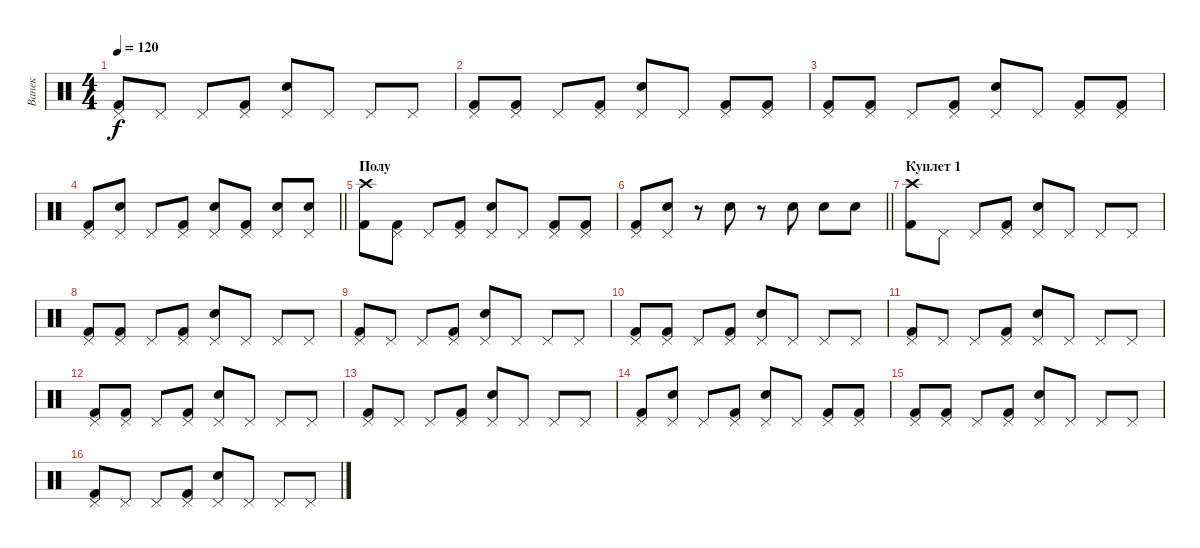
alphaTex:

\track ("Ванек" "Ванек") {instrument percussion}
\staff {score}
\articulation defaults
\ts (4 4)
\tempo 120
\clef neutral
\ks c
("Kick (hit) 2" "Pedal Hi-Hat (hit)").8{dy f} "Pedal Hi-Hat (hit)".8 "Pedal Hi-Hat (hit)".8 ("Kick (hit) 2" "Pedal Hi-Hat (hit)").8 ("Electric Snare (hit)" "Pedal Hi-Hat (hit)").8 "Pedal Hi-Hat (hit)".8 "Pedal Hi-Hat (hit)".8 "Pedal Hi-Hat (hit)".8 |
("Kick (hit) 2" "Pedal Hi-Hat (hit)").8 ("Kick (hit) 2" "Pedal Hi-Hat (hit)").8 "Pedal Hi-Hat (hit)".8 ("Kick (hit) 2" "Pedal Hi-Hat (hit)").8 ("Electric Snare (hit)" "Pedal Hi-Hat (hit)").8 "Pedal Hi-Hat (hit)".8 ("Kick (hit) 2" "Pedal Hi-Hat (hit)").8 ("Kick (hit) 2" "Pedal Hi-Hat (hit)").8 |
("Kick (hit) 2" "Pedal Hi-Hat (hit)").8 ("Kick (hit) 2" "Pedal Hi-Hat (hit)").8 "Pedal Hi-Hat (hit)".8 ("Kick (hit) 2" "Pedal Hi-Hat (hit)").8 ("Electric Snare (hit)" "Pedal Hi-Hat (hit)").8 "Pedal Hi-Hat (hit)".8 ("Kick (hit) 2" "Pedal Hi-Hat (hit)").8 ("Kick (hit) 2" "Pedal Hi-Hat (hit)").8 |
\barLineRight lightlight
("Kick (hit) 2" "Pedal Hi-Hat (hit)").8 ("Electric Snare (hit)" "Pedal Hi-Hat (hit)").8 "Pedal Hi-Hat (hit)".8 ("Kick (hit) 2" "Pedal Hi-Hat (hit)").8 ("Electric Snare (hit)" "Pedal Hi-Hat (hit)").8 ("Kick (hit) 2" "Pedal Hi-Hat (hit)").8 ("Electric Snare (hit)" "Pedal Hi-Hat (hit)").8 ("Electric Snare (hit)" "Pedal Hi-Hat (hit)").8 |
\section ("" "Полу")
("Kick (hit) 2" "Crash high (hit)").8 ("Kick (hit) 2" "Pedal Hi-Hat (hit)").8 "Pedal Hi-Hat (hit)".8 ("Kick (hit) 2" "Pedal Hi-Hat (hit)").8 ("Electric Snare (hit)" "Pedal Hi-Hat (hit)").8 "Pedal Hi-Hat (hit)".8 ("Kick (hit) 2" "Pedal Hi-Hat (hit)").8 ("Kick (hit) 2" "Pedal Hi-Hat (hit)").8 |
\barLineRight lightlight
("Kick (hit) 2" "Pedal Hi-Hat (hit)").8 ("Electric Snare (hit)" "Pedal Hi-Hat (hit)").8 r.8 "Electric Snare (hit)".8 r.8 "Electric Snare (hit)".8 "Electric Snare (hit)".8 "Electric Snare (hit)".8 |
\section ("" "Куплет 1")
("Kick (hit) 2" "Crash high (hit)").8 "Pedal Hi-Hat (hit)".8 "Pedal Hi-Hat (hit)".8 ("Kick (hit) 2" "Pedal Hi-Hat (hit)").8 ("Electric Snare (hit)" "Pedal Hi-Hat (hit)").8 "Pedal Hi-Hat (hit)".8 "Pedal Hi-Hat (hit)".8 "Pedal Hi-Hat (hit)".8 |
("Kick (hit) 2" "Pedal Hi-Hat (hit)").8 ("Kick (hit) 2" "Pedal Hi-Hat (hit)").8 "Pedal Hi-Hat (hit)".8 ("Kick (hit) 2" "Pedal Hi-Hat (hit)").8 ("Electric Snare (hit)" "Pedal Hi-Hat (hit)").8 "Pedal Hi-Hat (hit)".8 "Pedal Hi-Hat (hit)".8 "Pedal Hi-Hat (hit)".8 |
("Kick (hit) 2" "Pedal Hi-Hat (hit)").8 "Pedal Hi-Hat (hit)".8 "Pedal Hi-Hat (hit)".8 ("Kick (hit) 2" "Pedal Hi-Hat (hit)").8 ("Electric Snare (hit)" "Pedal Hi-Hat (hit)").8 "Pedal Hi-Hat (hit)".8 "Pedal Hi-Hat (hit)".8 "Pedal Hi-Hat (hit)".8 |
("Kick (hit) 2" "Pedal Hi-Hat (hit)").8 ("Kick (hit) 2" "Pedal Hi-Hat (hit)").8 "Pedal Hi-Hat (hit)".8 ("Kick (hit) 2" "Pedal Hi-Hat (hit)").8 ("Electric Snare (hit)" "Pedal Hi-Hat (hit)").8 "Pedal Hi-Hat (hit)".8 "Pedal Hi-Hat (hit)".8 "Pedal Hi-Hat (hit)".8 |
("Kick (hit) 2" "Pedal Hi-Hat (hit)").8 "Pedal Hi-Hat (hit)".8 "Pedal Hi-Hat (hit)".8 ("Kick (hit) 2" "Pedal Hi-Hat (hit)").8 ("Electric Snare (hit)" "Pedal Hi-Hat (hit)").8 "Pedal Hi-Hat (hit)".8 "Pedal Hi-Hat (hit)".8 "Pedal Hi-Hat (hit)".8 |
("Kick (hit) 2" "Pedal Hi-Hat (hit)").8 ("Kick (hit) 2" "Pedal Hi-Hat (hit)").8 "Pedal Hi-Hat (hit)".8 ("Kick (hit) 2" "Pedal Hi-Hat (hit)").8 ("Electric Snare (hit)" "Pedal Hi-Hat (hit)").8 "Pedal Hi-Hat (hit)".8 "Pedal Hi-Hat (hit)".8 "Pedal Hi-Hat (hit)".8 |
("Kick (hit) 2" "Pedal Hi-Hat (hit)").8 "Pedal Hi-Hat (hit)".8 "Pedal Hi-Hat (hit)".8 ("Kick (hit) 2" "Pedal Hi-Hat (hit)").8 ("Electric Snare (hit)" "Pedal Hi-Hat (hit)").8 "Pedal Hi-Hat (hit)".8 "Pedal Hi-Hat (hit)".8 "Pedal Hi-Hat (hit)".8 |
("Kick (hit) 2" "Pedal Hi-Hat (hit)").8 ("Electric Snare (hit)" "Pedal Hi-Hat (hit)").8 "Pedal Hi-Hat (hit)".8 ("Kick (hit) 2" "Pedal Hi-Hat (hit)").8 ("Electric Snare (hit)" "Pedal Hi-Hat (hit)").8 "Pedal Hi-Hat (hit)".8 ("Kick (hit) 2" "Pedal Hi-Hat (hit)").8 ("Kick (hit) 2" "Pedal Hi-Hat (hit)").8 |
("Kick (hit) 2" "Pedal Hi-Hat (hit)").8 ("Kick (hit) 2" "Pedal Hi-Hat (hit)").8 "Pedal Hi-Hat (hit)".8 ("Kick (hit) 2" "Pedal Hi-Hat (hit)").8 ("Electric Snare (hit)" "Pedal Hi-Hat (hit)").8 "Pedal Hi-Hat (hit)".8 "Pedal Hi-Hat (hit)".8 "Pedal Hi-Hat (hit)".8 |
("Kick (hit) 2" "Pedal Hi-Hat (hit)").8 "Pedal Hi-Hat (hit)".8 "Pedal Hi-Hat (hit)".8 ("Kick (hit) 2" "Pedal Hi-Hat (hit)").8 ("Electric Snare (hit)" "Pedal Hi-Hat (hit)").8 "Pedal Hi-Hat (hit)".8 "Pedal Hi-Hat (hit)".8 "Pedal Hi-Hat (hit)".8
